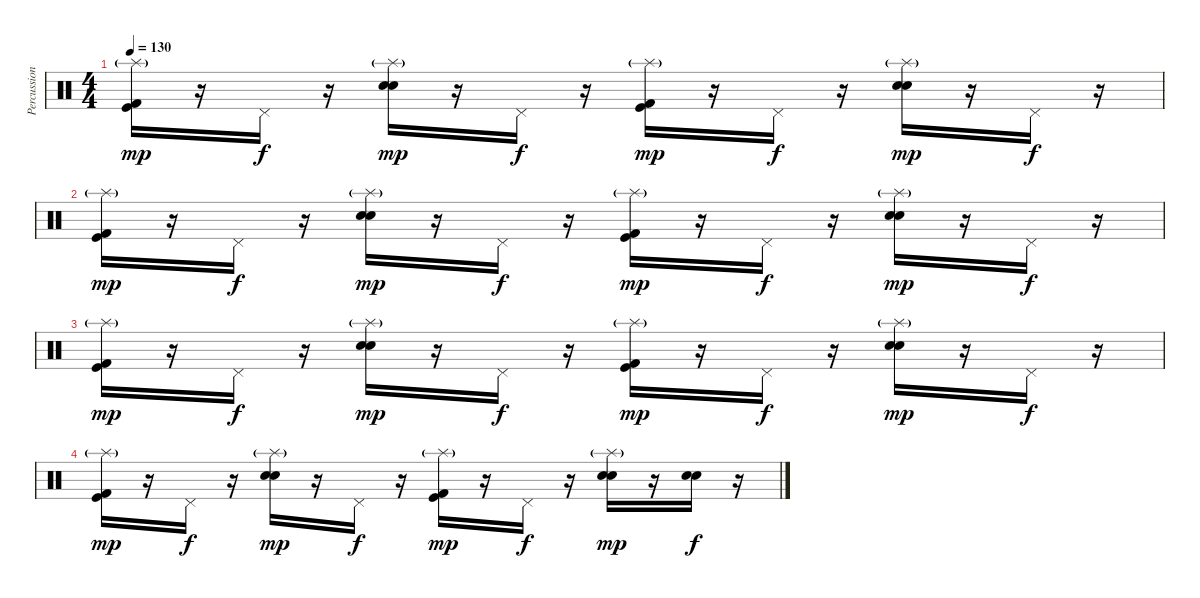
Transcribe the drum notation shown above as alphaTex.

\track ("Percussion" "Percussion") {instrument percussion}
\staff {score}
\articulation defaults
\ts (4 4)
\tempo 130
\clef neutral
\ks c
("Splash (hit)"{g} "Kick (hit) 2" "Kick (hit)").16{dy mp} r.16 "Pedal Hi-Hat (hit)".16{dy f} r.16 ("Splash (hit)"{g} "Snare (hit) 2" "Electric Snare (hit)").16{dy mp} r.16 "Pedal Hi-Hat (hit)".16{dy f} r.16 ("Splash (hit)"{g} "Kick (hit) 2" "Kick (hit)").16{dy mp} r.16 "Pedal Hi-Hat (hit)".16{dy f} r.16 ("Splash (hit)"{g} "Snare (hit) 2" "Electric Snare (hit)").16{dy mp} r.16 "Pedal Hi-Hat (hit)".16{dy f} r.16 |
("Splash (hit)"{g} "Kick (hit) 2" "Kick (hit)").16{dy mp} r.16 "Pedal Hi-Hat (hit)".16{dy f} r.16 ("Splash (hit)"{g} "Snare (hit) 2" "Electric Snare (hit)").16{dy mp} r.16 "Pedal Hi-Hat (hit)".16{dy f} r.16 ("Splash (hit)"{g} "Kick (hit) 2" "Kick (hit)").16{dy mp} r.16 "Pedal Hi-Hat (hit)".16{dy f} r.16 ("Splash (hit)"{g} "Snare (hit) 2" "Electric Snare (hit)").16{dy mp} r.16 "Pedal Hi-Hat (hit)".16{dy f} r.16 |
("Splash (hit)"{g} "Kick (hit) 2" "Kick (hit)").16{dy mp} r.16 "Pedal Hi-Hat (hit)".16{dy f} r.16 ("Splash (hit)"{g} "Snare (hit) 2" "Electric Snare (hit)").16{dy mp} r.16 "Pedal Hi-Hat (hit)".16{dy f} r.16 ("Splash (hit)"{g} "Kick (hit) 2" "Kick (hit)").16{dy mp} r.16 "Pedal Hi-Hat (hit)".16{dy f} r.16 ("Splash (hit)"{g} "Snare (hit) 2" "Electric Snare (hit)").16{dy mp} r.16 "Pedal Hi-Hat (hit)".16{dy f} r.16 |
("Splash (hit)"{g} "Kick (hit) 2" "Kick (hit)").16{dy mp} r.16 "Pedal Hi-Hat (hit)".16{dy f} r.16 ("Splash (hit)"{g} "Snare (hit) 2" "Electric Snare (hit)").16{dy mp} r.16 "Pedal Hi-Hat (hit)".16{dy f} r.16 ("Splash (hit)"{g} "Kick (hit) 2" "Kick (hit)").16{dy mp} r.16 "Pedal Hi-Hat (hit)".16{dy f} r.16 ("Splash (hit)"{g} "Snare (hit) 2" "Electric Snare (hit)").16{dy mp} r.16 ("Snare (hit) 2" "Electric Snare (hit)").16{dy f} r.16
